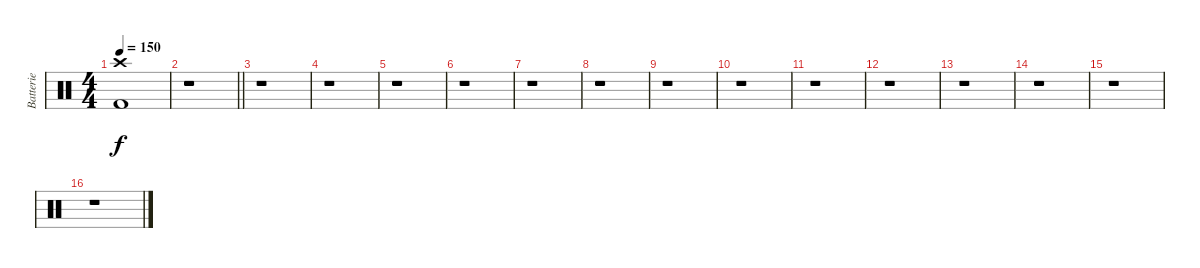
\track ("Batterie" "Batterie") {instrument percussion}
\staff {score}
\articulation defaults
\ts (4 4)
\tempo 150
\clef neutral
\ks c
("Crash high (hit)" "Kick (hit) 2").1{dy f} |
\barLineRight lightlight
r.1 |
r.1 |
r.1 |
r.1 |
r.1 |
r.1 |
r.1 |
r.1 |
r.1 |
r.1 |
r.1 |
r.1 |
r.1 |
r.1 |
r.1
